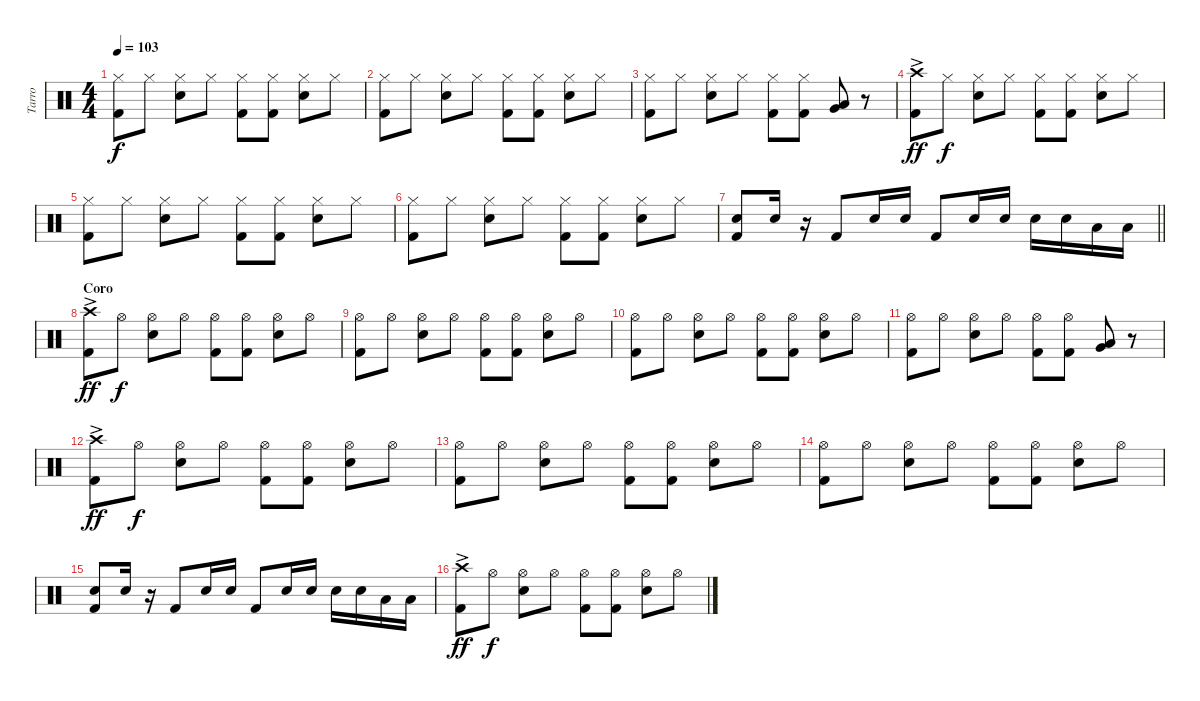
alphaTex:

\track ("Tarro" "Tarro") {instrument percussion}
\staff {score}
\articulation defaults
\ts (4 4)
\tempo 103
\clef neutral
\ks c
("Hi-Hat (closed)" "Kick (hit) 2").8{dy f} "Hi-Hat (closed)".8 ("Hi-Hat (closed)" "Electric Snare (hit)").8 "Hi-Hat (closed)".8 ("Hi-Hat (closed)" "Kick (hit) 2").8 ("Hi-Hat (closed)" "Kick (hit) 2").8 ("Hi-Hat (closed)" "Electric Snare (hit)").8 "Hi-Hat (closed)".8 |
("Hi-Hat (closed)" "Kick (hit) 2").8 "Hi-Hat (closed)".8 ("Hi-Hat (closed)" "Electric Snare (hit)").8 "Hi-Hat (closed)".8 ("Hi-Hat (closed)" "Kick (hit) 2").8 ("Hi-Hat (closed)" "Kick (hit) 2").8 ("Hi-Hat (closed)" "Electric Snare (hit)").8 "Hi-Hat (closed)".8 |
("Hi-Hat (closed)" "Kick (hit) 2").8 "Hi-Hat (closed)".8 ("Hi-Hat (closed)" "Electric Snare (hit)").8 "Hi-Hat (closed)".8 ("Hi-Hat (closed)" "Kick (hit) 2").8 ("Hi-Hat (closed)" "Kick (hit) 2").8 ("Very Low Tom (hit)" "Low Floor Tom (hit)").8 r.8 |
("Crash high (hit)"{ac} "Kick (hit) 2").8{dy ff} "Hi-Hat (closed)".8{dy f} ("Hi-Hat (closed)" "Electric Snare (hit)").8 "Hi-Hat (closed)".8 ("Hi-Hat (closed)" "Kick (hit) 2").8 ("Hi-Hat (closed)" "Kick (hit) 2").8 ("Hi-Hat (closed)" "Electric Snare (hit)").8 "Hi-Hat (closed)".8 |
("Hi-Hat (closed)" "Kick (hit) 2").8 "Hi-Hat (closed)".8 ("Hi-Hat (closed)" "Electric Snare (hit)").8 "Hi-Hat (closed)".8 ("Hi-Hat (closed)" "Kick (hit) 2").8 ("Hi-Hat (closed)" "Kick (hit) 2").8 ("Hi-Hat (closed)" "Electric Snare (hit)").8 "Hi-Hat (closed)".8 |
("Hi-Hat (closed)" "Kick (hit) 2").8 "Hi-Hat (closed)".8 ("Hi-Hat (closed)" "Electric Snare (hit)").8 "Hi-Hat (closed)".8 ("Hi-Hat (closed)" "Kick (hit) 2").8 ("Hi-Hat (closed)" "Kick (hit) 2").8 ("Hi-Hat (closed)" "Electric Snare (hit)").8 "Hi-Hat (closed)".8 |
\barLineRight lightlight
("Electric Snare (hit)" "Kick (hit) 2").8 "Electric Snare (hit)".16 r.16 "Kick (hit) 2".8 "Electric Snare (hit)".16 "Electric Snare (hit)".16 "Kick (hit) 2".8 "Electric Snare (hit)".16 "Electric Snare (hit)".16 "Electric Snare (hit)".16 "Electric Snare (hit)".16 "Low Floor Tom (hit)".16 "Low Floor Tom (hit)".16 |
\section ("" "Coro")
("Crash high (hit)"{ac} "Kick (hit) 2").8{dy ff} "Hi-Hat (open)".8{dy f} ("Hi-Hat (open)" "Electric Snare (hit)").8 "Hi-Hat (open)".8 ("Hi-Hat (open)" "Kick (hit) 2").8 ("Hi-Hat (open)" "Kick (hit) 2").8 ("Hi-Hat (open)" "Electric Snare (hit)").8 "Hi-Hat (open)".8 |
("Hi-Hat (open)" "Kick (hit) 2").8 "Hi-Hat (open)".8 ("Hi-Hat (open)" "Electric Snare (hit)").8 "Hi-Hat (open)".8 ("Hi-Hat (open)" "Kick (hit) 2").8 ("Hi-Hat (open)" "Kick (hit) 2").8 ("Hi-Hat (open)" "Electric Snare (hit)").8 "Hi-Hat (open)".8 |
("Hi-Hat (open)" "Kick (hit) 2").8 "Hi-Hat (open)".8 ("Hi-Hat (open)" "Electric Snare (hit)").8 "Hi-Hat (open)".8 ("Hi-Hat (open)" "Kick (hit) 2").8 ("Hi-Hat (open)" "Kick (hit) 2").8 ("Hi-Hat (open)" "Electric Snare (hit)").8 "Hi-Hat (open)".8 |
("Hi-Hat (open)" "Kick (hit) 2").8 "Hi-Hat (open)".8 ("Hi-Hat (open)" "Electric Snare (hit)").8 "Hi-Hat (open)".8 ("Hi-Hat (open)" "Kick (hit) 2").8 ("Hi-Hat (open)" "Kick (hit) 2").8 ("Very Low Tom (hit)" "Low Floor Tom (hit)").8 r.8 |
("Crash high (hit)"{ac} "Kick (hit) 2").8{dy ff} "Hi-Hat (open)".8{dy f} ("Hi-Hat (open)" "Electric Snare (hit)").8 "Hi-Hat (open)".8 ("Hi-Hat (open)" "Kick (hit) 2").8 ("Hi-Hat (open)" "Kick (hit) 2").8 ("Hi-Hat (open)" "Electric Snare (hit)").8 "Hi-Hat (open)".8 |
("Hi-Hat (open)" "Kick (hit) 2").8 "Hi-Hat (open)".8 ("Hi-Hat (open)" "Electric Snare (hit)").8 "Hi-Hat (open)".8 ("Hi-Hat (open)" "Kick (hit) 2").8 ("Hi-Hat (open)" "Kick (hit) 2").8 ("Hi-Hat (open)" "Electric Snare (hit)").8 "Hi-Hat (open)".8 |
("Hi-Hat (open)" "Kick (hit) 2").8 "Hi-Hat (open)".8 ("Hi-Hat (open)" "Electric Snare (hit)").8 "Hi-Hat (open)".8 ("Hi-Hat (open)" "Kick (hit) 2").8 ("Hi-Hat (open)" "Kick (hit) 2").8 ("Hi-Hat (open)" "Electric Snare (hit)").8 "Hi-Hat (open)".8 |
("Electric Snare (hit)" "Kick (hit) 2").8 "Electric Snare (hit)".16 r.16 "Kick (hit) 2".8 "Electric Snare (hit)".16 "Electric Snare (hit)".16 "Kick (hit) 2".8 "Electric Snare (hit)".16 "Electric Snare (hit)".16 "Electric Snare (hit)".16 "Electric Snare (hit)".16 "Low Floor Tom (hit)".16 "Low Floor Tom (hit)".16 |
("Crash high (hit)"{ac} "Kick (hit) 2").8{dy ff} "Hi-Hat (open)".8{dy f} ("Hi-Hat (open)" "Electric Snare (hit)").8 "Hi-Hat (open)".8 ("Hi-Hat (open)" "Kick (hit) 2").8 ("Hi-Hat (open)" "Kick (hit) 2").8 ("Hi-Hat (open)" "Electric Snare (hit)").8 "Hi-Hat (open)".8
